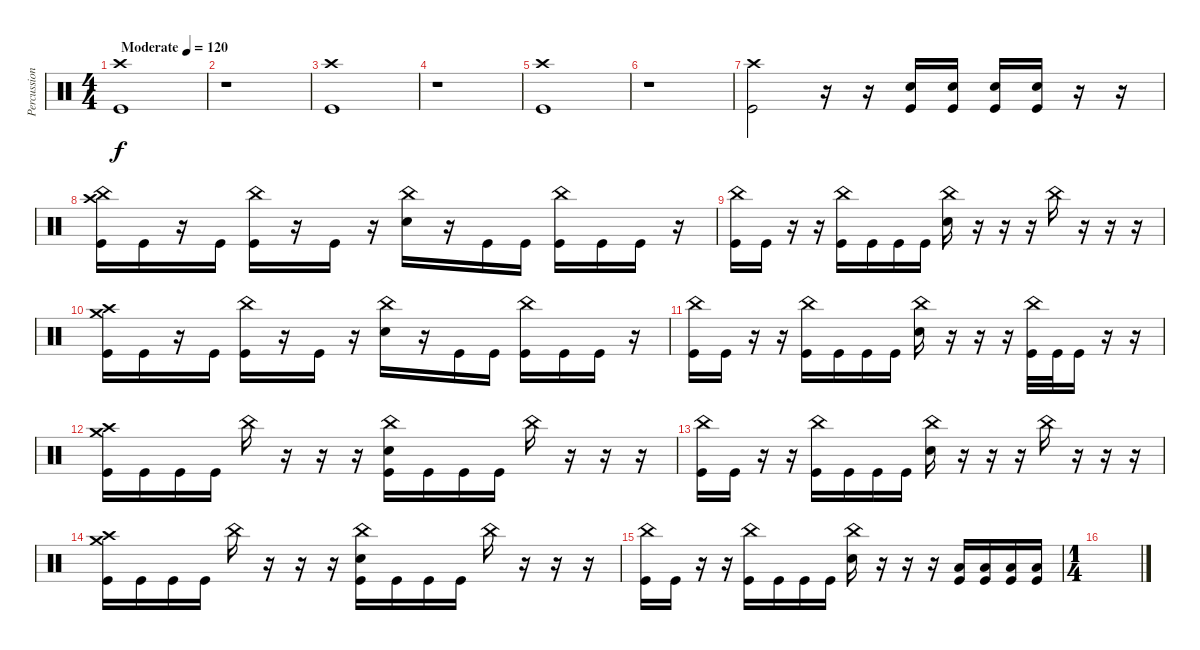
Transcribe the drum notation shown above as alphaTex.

\track ("Percussion" "Percussion") {instrument percussion}
\staff {score}
\articulation defaults
\ts (4 4)
\tempo (120 "Moderate")
\clef neutral
\ks c
("Crash high (hit)" "Kick (hit)").1{dy f} |
r.1 |
("Crash high (hit)" "Kick (hit)").1 |
r.1 |
("Crash high (hit)" "Kick (hit)").1 |
r.1 |
("Crash high (hit)" "Kick (hit)").2 r.16 r.16 ("Snare (hit) 2" "Kick (hit)").16 ("Snare (hit) 2" "Kick (hit)").16 ("Snare (hit) 2" "Kick (hit)").16 ("Snare (hit) 2" "Kick (hit)").16 r.16 r.16 |
("Crash high (hit)" "China (hit)" "Kick (hit)").16 "Kick (hit)".16 r.16 "Kick (hit)".16 ("China (hit)" "Kick (hit)").16 r.16 "Kick (hit)".16 r.16 ("China (hit)" "Snare (hit) 2").16 r.16 "Kick (hit)".16 "Kick (hit)".16 ("China (hit)" "Kick (hit)").16 "Kick (hit)".16 "Kick (hit)".16 r.16 |
("China (hit)" "Kick (hit)").16 "Kick (hit)".16 r.16 r.16 ("China (hit)" "Kick (hit)").16 "Kick (hit)".16 "Kick (hit)".16 "Kick (hit)".16 ("China (hit)" "Snare (hit) 2").16 r.16 r.16 r.16 "China (hit)".16 r.16 r.16 r.16 |
("Crash medium (hit)" "Crash high (hit)" "Kick (hit)").16 "Kick (hit)".16 r.16 "Kick (hit)".16 ("China (hit)" "Kick (hit)").16 r.16 "Kick (hit)".16 r.16 ("China (hit)" "Snare (hit) 2").16 r.16 "Kick (hit)".16 "Kick (hit)".16 ("China (hit)" "Kick (hit)").16 "Kick (hit)".16 "Kick (hit)".16 r.16 |
("China (hit)" "Kick (hit)").16 "Kick (hit)".16 r.16 r.16 ("China (hit)" "Kick (hit)").16 "Kick (hit)".16 "Kick (hit)".16 "Kick (hit)".16 ("China (hit)" "Snare (hit) 2").16 r.16 r.16 r.16 ("China (hit)" "Kick (hit)").32 "Kick (hit)".32 "Kick (hit)".16 r.16 r.16 |
("Crash medium (hit)" "Crash high (hit)" "Kick (hit)").16 "Kick (hit)".16 "Kick (hit)".16 "Kick (hit)".16 "China (hit)".16 r.16 r.16 r.16 ("China (hit)" "Snare (hit) 2" "Kick (hit)").16 "Kick (hit)".16 "Kick (hit)".16 "Kick (hit)".16 "China (hit)".16 r.16 r.16 r.16 |
("China (hit)" "Kick (hit)").16 "Kick (hit)".16 r.16 r.16 ("China (hit)" "Kick (hit)").16 "Kick (hit)".16 "Kick (hit)".16 "Kick (hit)".16 ("Snare (hit) 2" "China (hit)").16 r.16 r.16 r.16 "China (hit)".16 r.16 r.16 r.16 |
("Crash medium (hit)" "Crash high (hit)" "Kick (hit)").16 "Kick (hit)".16 "Kick (hit)".16 "Kick (hit)".16 "China (hit)".16 r.16 r.16 r.16 ("China (hit)" "Snare (hit) 2" "Kick (hit)").16 "Kick (hit)".16 "Kick (hit)".16 "Kick (hit)".16 "China (hit)".16 r.16 r.16 r.16 |
("China (hit)" "Kick (hit)").16 "Kick (hit)".16 r.16 r.16 ("China (hit)" "Kick (hit)").16 "Kick (hit)".16 "Kick (hit)".16 "Kick (hit)".16 ("China (hit)" "Snare (hit) 2").16 r.16 r.16 r.16 ("Low Tom (hit)" "Kick (hit)").16 ("Low Tom (hit)" "Kick (hit)").16 ("Low Tom (hit)" "Kick (hit)").16 ("Low Tom (hit)" "Kick (hit)").16 |
\ts (1 4)
